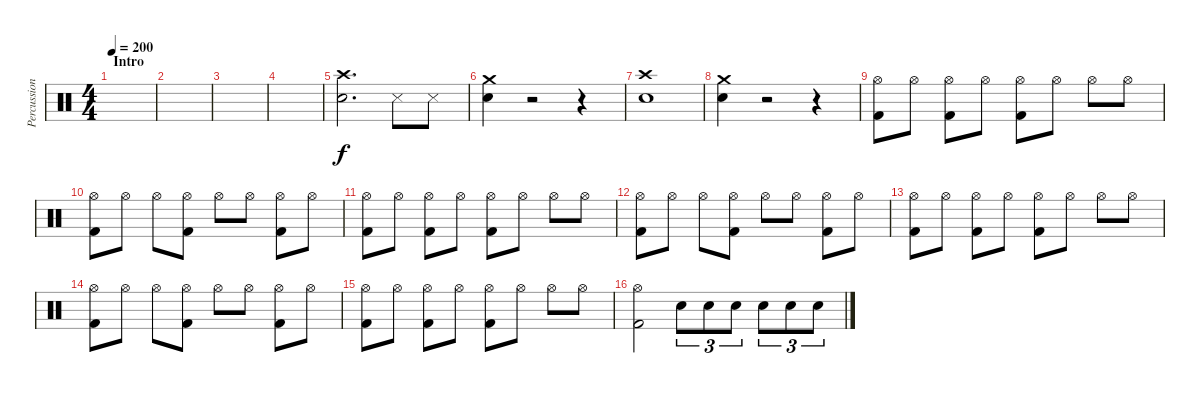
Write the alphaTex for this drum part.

\track ("Percussion" "Percussion") {instrument percussion}
\staff {score}
\articulation defaults
\ts (4 4)
\section ("" "Intro")
\tempo 200
\clef neutral
\ks c
|
|
|
|
("Crash high (hit)" "Snare (hit) 2").2{d} "Snare (side stick) 3".8 "Snare (side stick) 3".8 |
("Crash medium (hit)" "Snare (hit) 2").4 r.2 r.4 |
("Crash high (hit)" "Snare (hit) 2").1 |
("Crash medium (hit)" "Snare (hit) 2").4 r.2 r.4 |
("Hi-Hat (open)" "Kick (hit) 2").8 "Hi-Hat (open)".8 ("Hi-Hat (open)" "Kick (hit) 2").8 "Hi-Hat (open)".8 ("Hi-Hat (open)" "Kick (hit) 2").8 "Hi-Hat (open)".8 "Hi-Hat (open)".8 "Hi-Hat (open)".8 |
("Hi-Hat (open)" "Kick (hit) 2").8 "Hi-Hat (open)".8 "Hi-Hat (open)".8 ("Hi-Hat (open)" "Kick (hit) 2").8 "Hi-Hat (open)".8 "Hi-Hat (open)".8 ("Hi-Hat (open)" "Kick (hit) 2").8 "Hi-Hat (open)".8 |
("Hi-Hat (open)" "Kick (hit) 2").8 "Hi-Hat (open)".8 ("Hi-Hat (open)" "Kick (hit) 2").8 "Hi-Hat (open)".8 ("Hi-Hat (open)" "Kick (hit) 2").8 "Hi-Hat (open)".8 "Hi-Hat (open)".8 "Hi-Hat (open)".8 |
("Hi-Hat (open)" "Kick (hit) 2").8 "Hi-Hat (open)".8 "Hi-Hat (open)".8 ("Hi-Hat (open)" "Kick (hit) 2").8 "Hi-Hat (open)".8 "Hi-Hat (open)".8 ("Hi-Hat (open)" "Kick (hit) 2").8 "Hi-Hat (open)".8 |
("Hi-Hat (open)" "Kick (hit) 2").8 "Hi-Hat (open)".8 ("Hi-Hat (open)" "Kick (hit) 2").8 "Hi-Hat (open)".8 ("Hi-Hat (open)" "Kick (hit) 2").8 "Hi-Hat (open)".8 "Hi-Hat (open)".8 "Hi-Hat (open)".8 |
("Hi-Hat (open)" "Kick (hit) 2").8 "Hi-Hat (open)".8 "Hi-Hat (open)".8 ("Hi-Hat (open)" "Kick (hit) 2").8 "Hi-Hat (open)".8 "Hi-Hat (open)".8 ("Hi-Hat (open)" "Kick (hit) 2").8 "Hi-Hat (open)".8 |
("Hi-Hat (open)" "Kick (hit) 2").8 "Hi-Hat (open)".8 ("Hi-Hat (open)" "Kick (hit) 2").8 "Hi-Hat (open)".8 ("Hi-Hat (open)" "Kick (hit) 2").8 "Hi-Hat (open)".8 "Hi-Hat (open)".8 "Hi-Hat (open)".8 |
("Hi-Hat (open)" "Kick (hit) 2").2 "Electric Snare (hit)".8{tu (3 2)} "Electric Snare (hit)".8{tu (3 2)} "Electric Snare (hit)".8{tu (3 2)} "Electric Snare (hit)".8{tu (3 2)} "Electric Snare (hit)".8{tu (3 2)} "Electric Snare (hit)".8{tu (3 2)}
